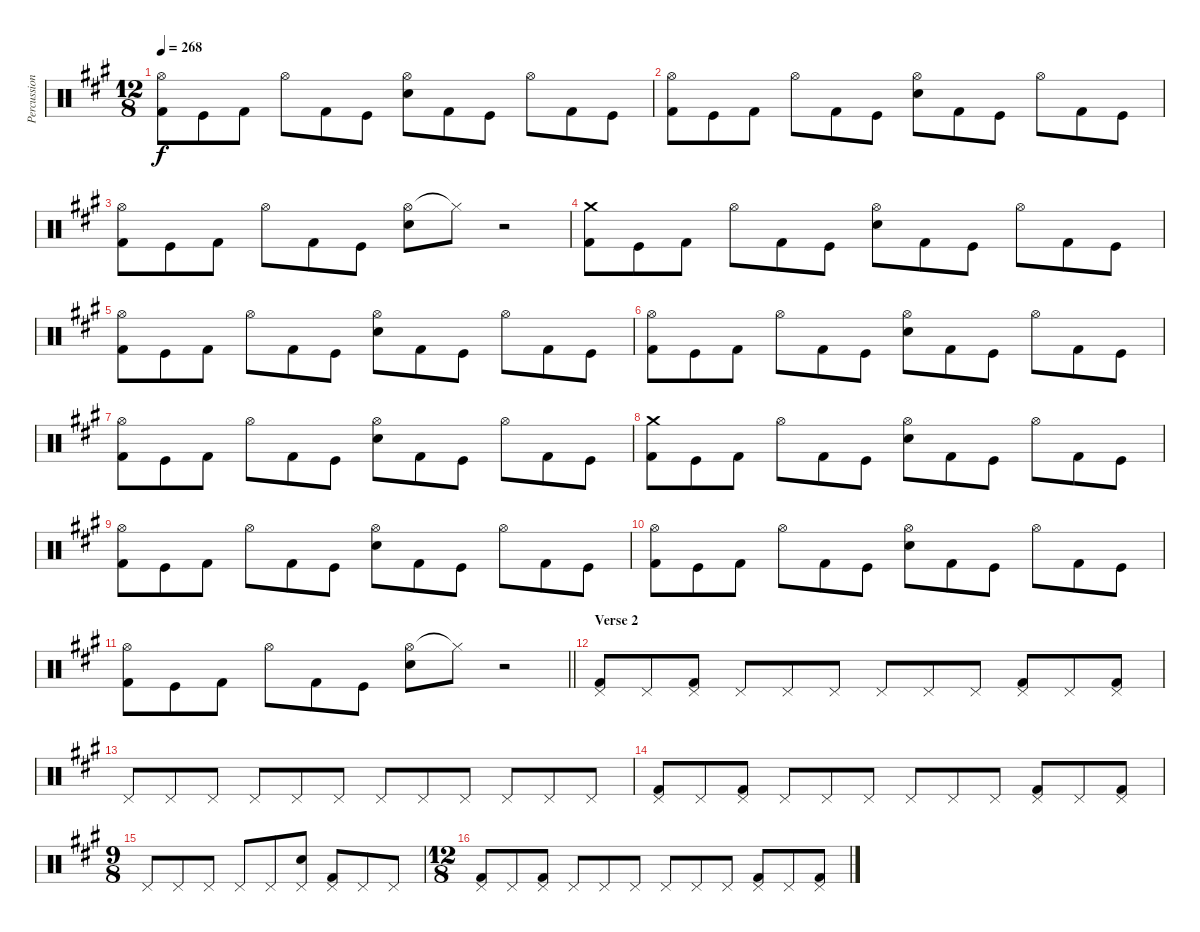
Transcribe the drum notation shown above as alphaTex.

\track ("Percussion" "Percussion") {instrument percussion}
\staff {score}
\articulation defaults
\ts (12 8)
\tempo 268
\clef neutral
\ks a
("Hi-Hat (open)" "Kick (hit) 2").8{dy f} "Kick (hit)".8 "Kick (hit) 2".8 "Hi-Hat (open)".8 "Kick (hit) 2".8 "Kick (hit)".8 ("Hi-Hat (open)" "Electric Snare (hit)").8 "Kick (hit) 2".8 "Kick (hit)".8 "Hi-Hat (open)".8 "Kick (hit) 2".8 "Kick (hit)".8 |
("Hi-Hat (open)" "Kick (hit) 2").8 "Kick (hit)".8 "Kick (hit) 2".8 "Hi-Hat (open)".8 "Kick (hit) 2".8 "Kick (hit)".8 ("Hi-Hat (open)" "Electric Snare (hit)").8 "Kick (hit) 2".8 "Kick (hit)".8 "Hi-Hat (open)".8 "Kick (hit) 2".8 "Kick (hit)".8 |
("Hi-Hat (open)" "Kick (hit) 2").8 "Kick (hit)".8 "Kick (hit) 2".8 "Hi-Hat (open)".8 "Kick (hit) 2".8 "Kick (hit)".8 ("Hi-Hat (open)" "Electric Snare (hit)").8 "Hi-Hat (closed)"{t}.8 r.2 |
("Crash medium (hit)" "Kick (hit) 2").8 "Kick (hit)".8 "Kick (hit) 2".8 "Hi-Hat (open)".8 "Kick (hit) 2".8 "Kick (hit)".8 ("Hi-Hat (open)" "Electric Snare (hit)").8 "Kick (hit) 2".8 "Kick (hit)".8 "Hi-Hat (open)".8 "Kick (hit) 2".8 "Kick (hit)".8 |
("Hi-Hat (open)" "Kick (hit) 2").8 "Kick (hit)".8 "Kick (hit) 2".8 "Hi-Hat (open)".8 "Kick (hit) 2".8 "Kick (hit)".8 ("Hi-Hat (open)" "Electric Snare (hit)").8 "Kick (hit) 2".8 "Kick (hit)".8 "Hi-Hat (open)".8 "Kick (hit) 2".8 "Kick (hit)".8 |
("Hi-Hat (open)" "Kick (hit) 2").8 "Kick (hit)".8 "Kick (hit) 2".8 "Hi-Hat (open)".8 "Kick (hit) 2".8 "Kick (hit)".8 ("Hi-Hat (open)" "Electric Snare (hit)").8 "Kick (hit) 2".8 "Kick (hit)".8 "Hi-Hat (open)".8 "Kick (hit) 2".8 "Kick (hit)".8 |
("Hi-Hat (open)" "Kick (hit) 2").8 "Kick (hit)".8 "Kick (hit) 2".8 "Hi-Hat (open)".8 "Kick (hit) 2".8 "Kick (hit)".8 ("Hi-Hat (open)" "Electric Snare (hit)").8 "Kick (hit) 2".8 "Kick (hit)".8 "Hi-Hat (open)".8 "Kick (hit) 2".8 "Kick (hit)".8 |
("Crash medium (hit)" "Kick (hit) 2").8 "Kick (hit)".8 "Kick (hit) 2".8 "Hi-Hat (open)".8 "Kick (hit) 2".8 "Kick (hit)".8 ("Hi-Hat (open)" "Electric Snare (hit)").8 "Kick (hit) 2".8 "Kick (hit)".8 "Hi-Hat (open)".8 "Kick (hit) 2".8 "Kick (hit)".8 |
("Hi-Hat (open)" "Kick (hit) 2").8 "Kick (hit)".8 "Kick (hit) 2".8 "Hi-Hat (open)".8 "Kick (hit) 2".8 "Kick (hit)".8 ("Hi-Hat (open)" "Electric Snare (hit)").8 "Kick (hit) 2".8 "Kick (hit)".8 "Hi-Hat (open)".8 "Kick (hit) 2".8 "Kick (hit)".8 |
("Hi-Hat (open)" "Kick (hit) 2").8 "Kick (hit)".8 "Kick (hit) 2".8 "Hi-Hat (open)".8 "Kick (hit) 2".8 "Kick (hit)".8 ("Hi-Hat (open)" "Electric Snare (hit)").8 "Kick (hit) 2".8 "Kick (hit)".8 "Hi-Hat (open)".8 "Kick (hit) 2".8 "Kick (hit)".8 |
\barLineRight lightlight
("Hi-Hat (open)" "Kick (hit) 2").8 "Kick (hit)".8 "Kick (hit) 2".8 "Hi-Hat (open)".8 "Kick (hit) 2".8 "Kick (hit)".8 ("Hi-Hat (open)" "Electric Snare (hit)").8 "Hi-Hat (closed)"{t}.8 r.2 |
\section ("" "Verse 2")
("Pedal Hi-Hat (hit)" "Kick (hit) 2").8 "Pedal Hi-Hat (hit)".8 ("Pedal Hi-Hat (hit)" "Kick (hit) 2").8 "Pedal Hi-Hat (hit)".8 "Pedal Hi-Hat (hit)".8 "Pedal Hi-Hat (hit)".8 "Pedal Hi-Hat (hit)".8 "Pedal Hi-Hat (hit)".8 "Pedal Hi-Hat (hit)".8 ("Pedal Hi-Hat (hit)" "Kick (hit) 2").8 "Pedal Hi-Hat (hit)".8 ("Pedal Hi-Hat (hit)" "Kick (hit) 2").8 |
"Pedal Hi-Hat (hit)".8 "Pedal Hi-Hat (hit)".8 "Pedal Hi-Hat (hit)".8 "Pedal Hi-Hat (hit)".8 "Pedal Hi-Hat (hit)".8 "Pedal Hi-Hat (hit)".8 "Pedal Hi-Hat (hit)".8 "Pedal Hi-Hat (hit)".8 "Pedal Hi-Hat (hit)".8 "Pedal Hi-Hat (hit)".8 "Pedal Hi-Hat (hit)".8 "Pedal Hi-Hat (hit)".8 |
("Pedal Hi-Hat (hit)" "Kick (hit) 2").8 "Pedal Hi-Hat (hit)".8 ("Pedal Hi-Hat (hit)" "Kick (hit) 2").8 "Pedal Hi-Hat (hit)".8 "Pedal Hi-Hat (hit)".8 "Pedal Hi-Hat (hit)".8 "Pedal Hi-Hat (hit)".8 "Pedal Hi-Hat (hit)".8 "Pedal Hi-Hat (hit)".8 ("Pedal Hi-Hat (hit)" "Kick (hit) 2").8 "Pedal Hi-Hat (hit)".8 ("Pedal Hi-Hat (hit)" "Kick (hit) 2").8 |
\ts (9 8)
"Pedal Hi-Hat (hit)".8 "Pedal Hi-Hat (hit)".8 "Pedal Hi-Hat (hit)".8 "Pedal Hi-Hat (hit)".8 "Pedal Hi-Hat (hit)".8 ("Pedal Hi-Hat (hit)" "Electric Snare (hit)").8 ("Pedal Hi-Hat (hit)" "Kick (hit) 2").8 "Pedal Hi-Hat (hit)".8 "Pedal Hi-Hat (hit)".8 |
\ts (12 8)
("Pedal Hi-Hat (hit)" "Kick (hit) 2").8 "Pedal Hi-Hat (hit)".8 ("Pedal Hi-Hat (hit)" "Kick (hit) 2").8 "Pedal Hi-Hat (hit)".8 "Pedal Hi-Hat (hit)".8 "Pedal Hi-Hat (hit)".8 "Pedal Hi-Hat (hit)".8 "Pedal Hi-Hat (hit)".8 "Pedal Hi-Hat (hit)".8 ("Pedal Hi-Hat (hit)" "Kick (hit) 2").8 "Pedal Hi-Hat (hit)".8 ("Pedal Hi-Hat (hit)" "Kick (hit) 2").8
